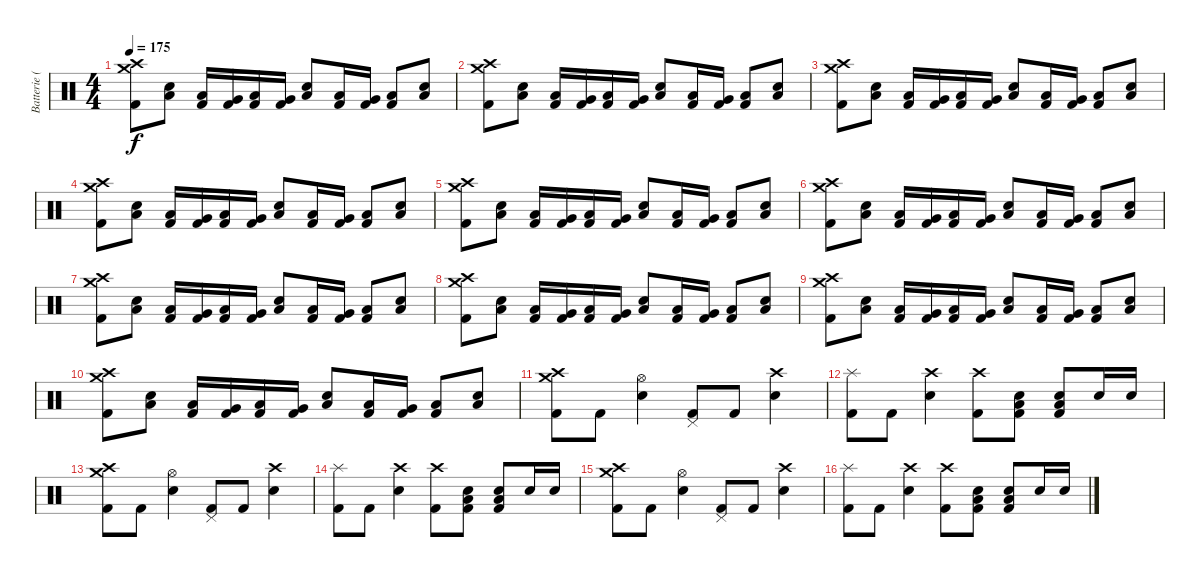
\track ("Batterie (Tré Cool)" "Batterie (") {instrument percussion}
\staff {score}
\articulation defaults
\ts (4 4)
\tempo 175
\clef neutral
\ks c
("Crash medium (hit)" "Crash high (hit)" "Kick (hit) 2").8{dy f} ("Low Floor Tom (hit)" "Electric Snare (hit)").8 ("Low Floor Tom (hit)" "Kick (hit) 2").16 ("Very Low Tom (hit)" "Kick (hit) 2").16 ("Low Floor Tom (hit)" "Kick (hit) 2").16 ("Very Low Tom (hit)" "Kick (hit) 2").16 ("Low Floor Tom (hit)" "Electric Snare (hit)").8 ("Low Floor Tom (hit)" "Kick (hit) 2").16 ("Very Low Tom (hit)" "Kick (hit) 2").16 ("Low Floor Tom (hit)" "Kick (hit) 2").8 ("Low Floor Tom (hit)" "Electric Snare (hit)").8 |
("Crash medium (hit)" "Crash high (hit)" "Kick (hit) 2").8 ("Low Floor Tom (hit)" "Electric Snare (hit)").8 ("Low Floor Tom (hit)" "Kick (hit) 2").16 ("Very Low Tom (hit)" "Kick (hit) 2").16 ("Low Floor Tom (hit)" "Kick (hit) 2").16 ("Very Low Tom (hit)" "Kick (hit) 2").16 ("Low Floor Tom (hit)" "Electric Snare (hit)").8 ("Low Floor Tom (hit)" "Kick (hit) 2").16 ("Very Low Tom (hit)" "Kick (hit) 2").16 ("Low Floor Tom (hit)" "Kick (hit) 2").8 ("Low Floor Tom (hit)" "Electric Snare (hit)").8 |
("Crash medium (hit)" "Crash high (hit)" "Kick (hit) 2").8 ("Low Floor Tom (hit)" "Electric Snare (hit)").8 ("Low Floor Tom (hit)" "Kick (hit) 2").16 ("Very Low Tom (hit)" "Kick (hit) 2").16 ("Low Floor Tom (hit)" "Kick (hit) 2").16 ("Very Low Tom (hit)" "Kick (hit) 2").16 ("Low Floor Tom (hit)" "Electric Snare (hit)").8 ("Low Floor Tom (hit)" "Kick (hit) 2").16 ("Very Low Tom (hit)" "Kick (hit) 2").16 ("Low Floor Tom (hit)" "Kick (hit) 2").8 ("Low Floor Tom (hit)" "Electric Snare (hit)").8 |
("Crash medium (hit)" "Crash high (hit)" "Kick (hit) 2").8 ("Low Floor Tom (hit)" "Electric Snare (hit)").8 ("Low Floor Tom (hit)" "Kick (hit) 2").16 ("Very Low Tom (hit)" "Kick (hit) 2").16 ("Low Floor Tom (hit)" "Kick (hit) 2").16 ("Very Low Tom (hit)" "Kick (hit) 2").16 ("Low Floor Tom (hit)" "Electric Snare (hit)").8 ("Low Floor Tom (hit)" "Kick (hit) 2").16 ("Very Low Tom (hit)" "Kick (hit) 2").16 ("Low Floor Tom (hit)" "Kick (hit) 2").8 ("Low Floor Tom (hit)" "Electric Snare (hit)").8 |
("Crash medium (hit)" "Crash high (hit)" "Kick (hit) 2").8 ("Low Floor Tom (hit)" "Electric Snare (hit)").8 ("Low Floor Tom (hit)" "Kick (hit) 2").16 ("Very Low Tom (hit)" "Kick (hit) 2").16 ("Low Floor Tom (hit)" "Kick (hit) 2").16 ("Very Low Tom (hit)" "Kick (hit) 2").16 ("Low Floor Tom (hit)" "Electric Snare (hit)").8 ("Low Floor Tom (hit)" "Kick (hit) 2").16 ("Very Low Tom (hit)" "Kick (hit) 2").16 ("Low Floor Tom (hit)" "Kick (hit) 2").8 ("Low Floor Tom (hit)" "Electric Snare (hit)").8 |
("Crash medium (hit)" "Crash high (hit)" "Kick (hit) 2").8 ("Low Floor Tom (hit)" "Electric Snare (hit)").8 ("Low Floor Tom (hit)" "Kick (hit) 2").16 ("Very Low Tom (hit)" "Kick (hit) 2").16 ("Low Floor Tom (hit)" "Kick (hit) 2").16 ("Very Low Tom (hit)" "Kick (hit) 2").16 ("Low Floor Tom (hit)" "Electric Snare (hit)").8 ("Low Floor Tom (hit)" "Kick (hit) 2").16 ("Very Low Tom (hit)" "Kick (hit) 2").16 ("Low Floor Tom (hit)" "Kick (hit) 2").8 ("Low Floor Tom (hit)" "Electric Snare (hit)").8 |
("Crash medium (hit)" "Crash high (hit)" "Kick (hit) 2").8 ("Low Floor Tom (hit)" "Electric Snare (hit)").8 ("Low Floor Tom (hit)" "Kick (hit) 2").16 ("Very Low Tom (hit)" "Kick (hit) 2").16 ("Low Floor Tom (hit)" "Kick (hit) 2").16 ("Very Low Tom (hit)" "Kick (hit) 2").16 ("Low Floor Tom (hit)" "Electric Snare (hit)").8 ("Low Floor Tom (hit)" "Kick (hit) 2").16 ("Very Low Tom (hit)" "Kick (hit) 2").16 ("Low Floor Tom (hit)" "Kick (hit) 2").8 ("Low Floor Tom (hit)" "Electric Snare (hit)").8 |
("Crash medium (hit)" "Crash high (hit)" "Kick (hit) 2").8 ("Low Floor Tom (hit)" "Electric Snare (hit)").8 ("Low Floor Tom (hit)" "Kick (hit) 2").16 ("Very Low Tom (hit)" "Kick (hit) 2").16 ("Low Floor Tom (hit)" "Kick (hit) 2").16 ("Very Low Tom (hit)" "Kick (hit) 2").16 ("Low Floor Tom (hit)" "Electric Snare (hit)").8 ("Low Floor Tom (hit)" "Kick (hit) 2").16 ("Very Low Tom (hit)" "Kick (hit) 2").16 ("Low Floor Tom (hit)" "Kick (hit) 2").8 ("Low Floor Tom (hit)" "Electric Snare (hit)").8 |
("Crash medium (hit)" "Crash high (hit)" "Kick (hit) 2").8 ("Low Floor Tom (hit)" "Electric Snare (hit)").8 ("Low Floor Tom (hit)" "Kick (hit) 2").16 ("Very Low Tom (hit)" "Kick (hit) 2").16 ("Low Floor Tom (hit)" "Kick (hit) 2").16 ("Very Low Tom (hit)" "Kick (hit) 2").16 ("Low Floor Tom (hit)" "Electric Snare (hit)").8 ("Low Floor Tom (hit)" "Kick (hit) 2").16 ("Very Low Tom (hit)" "Kick (hit) 2").16 ("Low Floor Tom (hit)" "Kick (hit) 2").8 ("Low Floor Tom (hit)" "Electric Snare (hit)").8 |
("Crash medium (hit)" "Crash high (hit)" "Kick (hit) 2").8 ("Low Floor Tom (hit)" "Electric Snare (hit)").8 ("Low Floor Tom (hit)" "Kick (hit) 2").16 ("Very Low Tom (hit)" "Kick (hit) 2").16 ("Low Floor Tom (hit)" "Kick (hit) 2").16 ("Very Low Tom (hit)" "Kick (hit) 2").16 ("Low Floor Tom (hit)" "Electric Snare (hit)").8 ("Low Floor Tom (hit)" "Kick (hit) 2").16 ("Very Low Tom (hit)" "Kick (hit) 2").16 ("Low Floor Tom (hit)" "Kick (hit) 2").8 ("Low Floor Tom (hit)" "Electric Snare (hit)").8 |
("Crash medium (hit)" "Crash high (hit)" "Kick (hit) 2").8 "Kick (hit) 2".8 ("Hi-Hat (open)" "Electric Snare (hit)").4 ("Pedal Hi-Hat (hit)" "Kick (hit) 2").8 "Kick (hit) 2".8 ("Crash high (hit)" "Electric Snare (hit)").4 |
("Splash (hit)" "Kick (hit) 2").8 "Kick (hit) 2".8 ("Crash high (hit)" "Electric Snare (hit)").4 ("Crash high (hit)" "Kick (hit) 2").8 ("Low Floor Tom (hit)" "Electric Snare (hit)" "Kick (hit) 2").8 ("Low Floor Tom (hit)" "Electric Snare (hit)" "Kick (hit) 2").8 "Electric Snare (hit)".16 "Electric Snare (hit)".16 |
("Crash medium (hit)" "Crash high (hit)" "Kick (hit) 2").8 "Kick (hit) 2".8 ("Hi-Hat (open)" "Electric Snare (hit)").4 ("Pedal Hi-Hat (hit)" "Kick (hit) 2").8 "Kick (hit) 2".8 ("Crash high (hit)" "Electric Snare (hit)").4 |
("Splash (hit)" "Kick (hit) 2").8 "Kick (hit) 2".8 ("Crash high (hit)" "Electric Snare (hit)").4 ("Crash high (hit)" "Kick (hit) 2").8 ("Low Floor Tom (hit)" "Electric Snare (hit)" "Kick (hit) 2").8 ("Low Floor Tom (hit)" "Electric Snare (hit)" "Kick (hit) 2").8 "Electric Snare (hit)".16 "Electric Snare (hit)".16 |
("Crash medium (hit)" "Crash high (hit)" "Kick (hit) 2").8 "Kick (hit) 2".8 ("Hi-Hat (open)" "Electric Snare (hit)").4 ("Pedal Hi-Hat (hit)" "Kick (hit) 2").8 "Kick (hit) 2".8 ("Crash high (hit)" "Electric Snare (hit)").4 |
("Splash (hit)" "Kick (hit) 2").8 "Kick (hit) 2".8 ("Crash high (hit)" "Electric Snare (hit)").4 ("Crash high (hit)" "Kick (hit) 2").8 ("Low Floor Tom (hit)" "Electric Snare (hit)" "Kick (hit) 2").8 ("Low Floor Tom (hit)" "Electric Snare (hit)" "Kick (hit) 2").8 "Electric Snare (hit)".16 "Electric Snare (hit)".16
